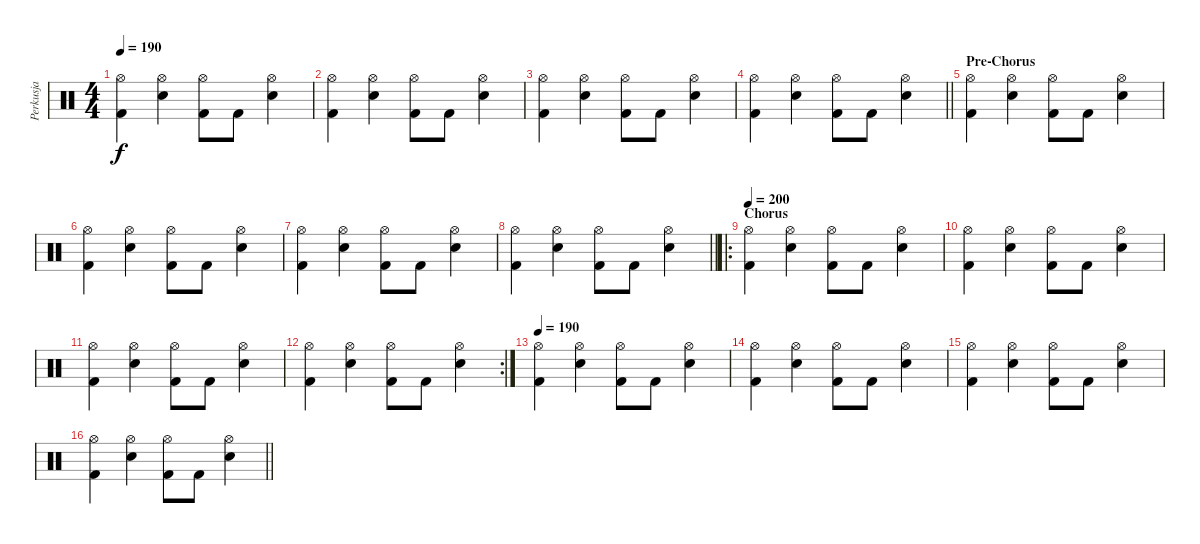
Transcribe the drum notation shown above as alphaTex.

\track ("Perkusja" "Perkusja") {instrument percussion}
\staff {score}
\articulation defaults
\ts (4 4)
\tempo 190
\clef neutral
\ks c
("Kick (hit) 2" "Hi-Hat (open)").4{dy f} ("Electric Snare (hit)" "Hi-Hat (open)").4 ("Kick (hit) 2" "Hi-Hat (open)").8 "Kick (hit) 2".8 ("Electric Snare (hit)" "Hi-Hat (open)").4 |
("Kick (hit) 2" "Hi-Hat (open)").4 ("Electric Snare (hit)" "Hi-Hat (open)").4 ("Kick (hit) 2" "Hi-Hat (open)").8 "Kick (hit) 2".8 ("Electric Snare (hit)" "Hi-Hat (open)").4 |
("Kick (hit) 2" "Hi-Hat (open)").4 ("Electric Snare (hit)" "Hi-Hat (open)").4 ("Kick (hit) 2" "Hi-Hat (open)").8 "Kick (hit) 2".8 ("Electric Snare (hit)" "Hi-Hat (open)").4 |
\barLineRight lightlight
("Kick (hit) 2" "Hi-Hat (open)").4 ("Electric Snare (hit)" "Hi-Hat (open)").4 ("Kick (hit) 2" "Hi-Hat (open)").8 "Kick (hit) 2".8 ("Electric Snare (hit)" "Hi-Hat (open)").4 |
\section ("" "Pre-Chorus")
("Kick (hit) 2" "Hi-Hat (open)").4 ("Electric Snare (hit)" "Hi-Hat (open)").4 ("Kick (hit) 2" "Hi-Hat (open)").8 "Kick (hit) 2".8 ("Electric Snare (hit)" "Hi-Hat (open)").4 |
("Kick (hit) 2" "Hi-Hat (open)").4 ("Electric Snare (hit)" "Hi-Hat (open)").4 ("Kick (hit) 2" "Hi-Hat (open)").8 "Kick (hit) 2".8 ("Electric Snare (hit)" "Hi-Hat (open)").4 |
("Kick (hit) 2" "Hi-Hat (open)").4 ("Electric Snare (hit)" "Hi-Hat (open)").4 ("Kick (hit) 2" "Hi-Hat (open)").8 "Kick (hit) 2".8 ("Electric Snare (hit)" "Hi-Hat (open)").4 |
\barLineRight lightlight
("Kick (hit) 2" "Hi-Hat (open)").4 ("Electric Snare (hit)" "Hi-Hat (open)").4 ("Kick (hit) 2" "Hi-Hat (open)").8 "Kick (hit) 2".8 ("Electric Snare (hit)" "Hi-Hat (open)").4 |
\ro
\section ("" "Chorus")
\tempo 200
("Kick (hit) 2" "Hi-Hat (open)").4 ("Electric Snare (hit)" "Hi-Hat (open)").4 ("Kick (hit) 2" "Hi-Hat (open)").8 "Kick (hit) 2".8 ("Electric Snare (hit)" "Hi-Hat (open)").4 |
("Kick (hit) 2" "Hi-Hat (open)").4 ("Electric Snare (hit)" "Hi-Hat (open)").4 ("Kick (hit) 2" "Hi-Hat (open)").8 "Kick (hit) 2".8 ("Electric Snare (hit)" "Hi-Hat (open)").4 |
("Kick (hit) 2" "Hi-Hat (open)").4 ("Electric Snare (hit)" "Hi-Hat (open)").4 ("Kick (hit) 2" "Hi-Hat (open)").8 "Kick (hit) 2".8 ("Electric Snare (hit)" "Hi-Hat (open)").4 |
\rc 2
("Kick (hit) 2" "Hi-Hat (open)").4 ("Electric Snare (hit)" "Hi-Hat (open)").4 ("Kick (hit) 2" "Hi-Hat (open)").8 "Kick (hit) 2".8 ("Electric Snare (hit)" "Hi-Hat (open)").4 |
\tempo 190
("Kick (hit) 2" "Hi-Hat (open)").4 ("Electric Snare (hit)" "Hi-Hat (open)").4 ("Kick (hit) 2" "Hi-Hat (open)").8 "Kick (hit) 2".8 ("Electric Snare (hit)" "Hi-Hat (open)").4 |
("Kick (hit) 2" "Hi-Hat (open)").4 ("Electric Snare (hit)" "Hi-Hat (open)").4 ("Kick (hit) 2" "Hi-Hat (open)").8 "Kick (hit) 2".8 ("Electric Snare (hit)" "Hi-Hat (open)").4 |
("Kick (hit) 2" "Hi-Hat (open)").4 ("Electric Snare (hit)" "Hi-Hat (open)").4 ("Kick (hit) 2" "Hi-Hat (open)").8 "Kick (hit) 2".8 ("Electric Snare (hit)" "Hi-Hat (open)").4 |
\barLineRight lightlight
("Kick (hit) 2" "Hi-Hat (open)").4 ("Electric Snare (hit)" "Hi-Hat (open)").4 ("Kick (hit) 2" "Hi-Hat (open)").8 "Kick (hit) 2".8 ("Electric Snare (hit)" "Hi-Hat (open)").4
